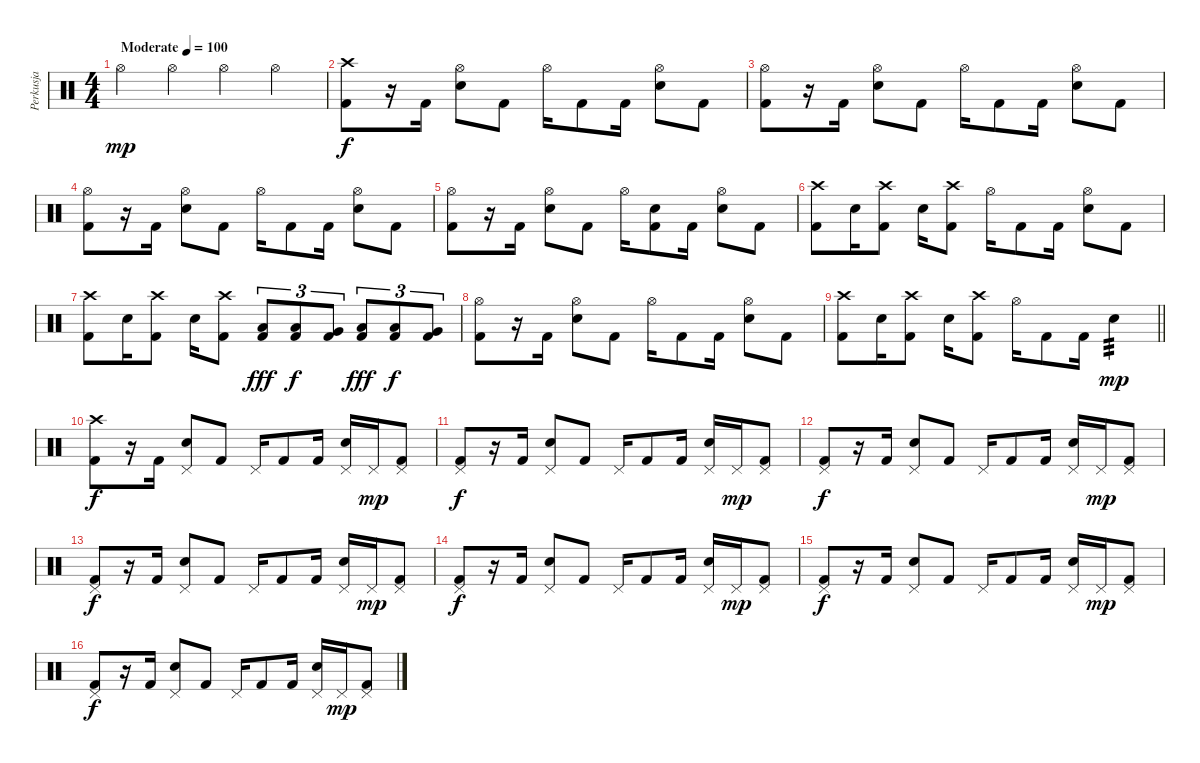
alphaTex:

\track ("Perkusja" "Perkusja") {instrument percussion}
\staff {score}
\articulation defaults
\ts (4 4)
\tempo (100 "Moderate")
\clef neutral
\ks c "Hi-Hat (open)".4{dy mp} "Hi-Hat (open)".4 "Hi-Hat (open)".4 "Hi-Hat (open)".4
|
("Crash high (hit)" "Kick (hit) 2").8{dy f} r.16 "Kick (hit) 2".16 ("Hi-Hat (open)" "Snare (hit) 2").8 "Kick (hit) 2".8 "Hi-Hat (open)".16 "Kick (hit) 2".8 "Kick (hit) 2".16 ("Hi-Hat (open)" "Snare (hit) 2").8 "Kick (hit) 2".8 |
("Hi-Hat (open)" "Kick (hit) 2").8 r.16 "Kick (hit) 2".16 ("Hi-Hat (open)" "Snare (hit) 2").8 "Kick (hit) 2".8 "Hi-Hat (open)".16 "Kick (hit) 2".8 "Kick (hit) 2".16 ("Hi-Hat (open)" "Snare (hit) 2").8 "Kick (hit) 2".8 |
("Hi-Hat (open)" "Kick (hit) 2").8 r.16 "Kick (hit) 2".16 ("Hi-Hat (open)" "Snare (hit) 2").8 "Kick (hit) 2".8 "Hi-Hat (open)".16 "Kick (hit) 2".8 "Kick (hit) 2".16 ("Hi-Hat (open)" "Snare (hit) 2").8 "Kick (hit) 2".8 |
("Hi-Hat (open)" "Kick (hit) 2").8 r.16 "Kick (hit) 2".16 ("Hi-Hat (open)" "Snare (hit) 2").8 "Kick (hit) 2".8 "Hi-Hat (open)".16 ("Snare (hit) 2" "Kick (hit) 2").8 "Kick (hit) 2".16 ("Hi-Hat (open)" "Snare (hit) 2").8 "Kick (hit) 2".8 |
("Crash high (hit)" "Kick (hit) 2").8 "Snare (hit) 2".16 ("Crash high (hit)" "Kick (hit) 2").8 "Snare (hit) 2".16 ("Crash high (hit)" "Kick (hit) 2").8 "Hi-Hat (open)".16 "Kick (hit) 2".8 "Kick (hit) 2".16 ("Hi-Hat (open)" "Snare (hit) 2").8 "Kick (hit) 2".8 |
("Crash high (hit)" "Kick (hit) 2").8 "Snare (hit) 2".16 ("Crash high (hit)" "Kick (hit) 2").8 "Snare (hit) 2".16 ("Crash high (hit)" "Kick (hit) 2").8 ("Low Tom (hit)" "Kick (hit) 2").8{tu (3 2) dy fff} ("Low Tom (hit)" "Kick (hit) 2").8{tu (3 2) dy f} ("Very Low Tom (hit)" "Kick (hit) 2").8{tu (3 2)} ("Low Tom (hit)" "Kick (hit) 2").8{tu (3 2) dy fff} ("Low Tom (hit)" "Kick (hit) 2").8{tu (3 2) dy f} ("Very Low Tom (hit)" "Kick (hit) 2").8{tu (3 2)} |
("Hi-Hat (open)" "Kick (hit) 2").8 r.16 "Kick (hit) 2".16 ("Hi-Hat (open)" "Snare (hit) 2").8 "Kick (hit) 2".8 "Hi-Hat (open)".16 "Kick (hit) 2".8 "Kick (hit) 2".16 ("Hi-Hat (open)" "Snare (hit) 2").8 "Kick (hit) 2".8 |
\barLineRight lightlight
("Crash high (hit)" "Kick (hit) 2").8 "Snare (hit) 2".16 ("Crash high (hit)" "Kick (hit) 2").8 "Snare (hit) 2".16 ("Crash high (hit)" "Kick (hit) 2").8 "Hi-Hat (open)".16 "Kick (hit) 2".8 "Kick (hit) 2".16 "Snare (hit) 2".4{tp 3 dy mp} |
("Crash high (hit)" "Kick (hit) 2").8{dy f} r.16 "Kick (hit) 2".16 ("Pedal Hi-Hat (hit)" "Snare (hit) 2").8 "Kick (hit) 2".8 "Pedal Hi-Hat (hit)".16 "Kick (hit) 2".8 "Kick (hit) 2".16 ("Pedal Hi-Hat (hit)" "Snare (hit) 2").16 "Pedal Hi-Hat (hit)".16{dy mp} ("Pedal Hi-Hat (hit)" "Kick (hit) 2").8 |
("Pedal Hi-Hat (hit)" "Kick (hit) 2").8{dy f} r.16 "Kick (hit) 2".16 ("Pedal Hi-Hat (hit)" "Snare (hit) 2").8 "Kick (hit) 2".8 "Pedal Hi-Hat (hit)".16 "Kick (hit) 2".8 "Kick (hit) 2".16 ("Pedal Hi-Hat (hit)" "Snare (hit) 2").16 "Pedal Hi-Hat (hit)".16{dy mp} ("Pedal Hi-Hat (hit)" "Kick (hit) 2").8 |
("Pedal Hi-Hat (hit)" "Kick (hit) 2").8{dy f} r.16 "Kick (hit) 2".16 ("Pedal Hi-Hat (hit)" "Snare (hit) 2").8 "Kick (hit) 2".8 "Pedal Hi-Hat (hit)".16 "Kick (hit) 2".8 "Kick (hit) 2".16 ("Pedal Hi-Hat (hit)" "Snare (hit) 2").16 "Pedal Hi-Hat (hit)".16{dy mp} ("Pedal Hi-Hat (hit)" "Kick (hit) 2").8 |
("Pedal Hi-Hat (hit)" "Kick (hit) 2").8{dy f} r.16 "Kick (hit) 2".16 ("Pedal Hi-Hat (hit)" "Snare (hit) 2").8 "Kick (hit) 2".8 "Pedal Hi-Hat (hit)".16 "Kick (hit) 2".8 "Kick (hit) 2".16 ("Pedal Hi-Hat (hit)" "Snare (hit) 2").16 "Pedal Hi-Hat (hit)".16{dy mp} ("Pedal Hi-Hat (hit)" "Kick (hit) 2").8 |
("Pedal Hi-Hat (hit)" "Kick (hit) 2").8{dy f} r.16 "Kick (hit) 2".16 ("Pedal Hi-Hat (hit)" "Snare (hit) 2").8 "Kick (hit) 2".8 "Pedal Hi-Hat (hit)".16 "Kick (hit) 2".8 "Kick (hit) 2".16 ("Pedal Hi-Hat (hit)" "Snare (hit) 2").16 "Pedal Hi-Hat (hit)".16{dy mp} ("Pedal Hi-Hat (hit)" "Kick (hit) 2").8 |
("Pedal Hi-Hat (hit)" "Kick (hit) 2").8{dy f} r.16 "Kick (hit) 2".16 ("Pedal Hi-Hat (hit)" "Snare (hit) 2").8 "Kick (hit) 2".8 "Pedal Hi-Hat (hit)".16 "Kick (hit) 2".8 "Kick (hit) 2".16 ("Pedal Hi-Hat (hit)" "Snare (hit) 2").16 "Pedal Hi-Hat (hit)".16{dy mp} ("Pedal Hi-Hat (hit)" "Kick (hit) 2").8 |
("Pedal Hi-Hat (hit)" "Kick (hit) 2").8{dy f} r.16 "Kick (hit) 2".16 ("Pedal Hi-Hat (hit)" "Snare (hit) 2").8 "Kick (hit) 2".8 "Pedal Hi-Hat (hit)".16 "Kick (hit) 2".8 "Kick (hit) 2".16 ("Pedal Hi-Hat (hit)" "Snare (hit) 2").16 "Pedal Hi-Hat (hit)".16{dy mp} ("Pedal Hi-Hat (hit)" "Kick (hit) 2").8
